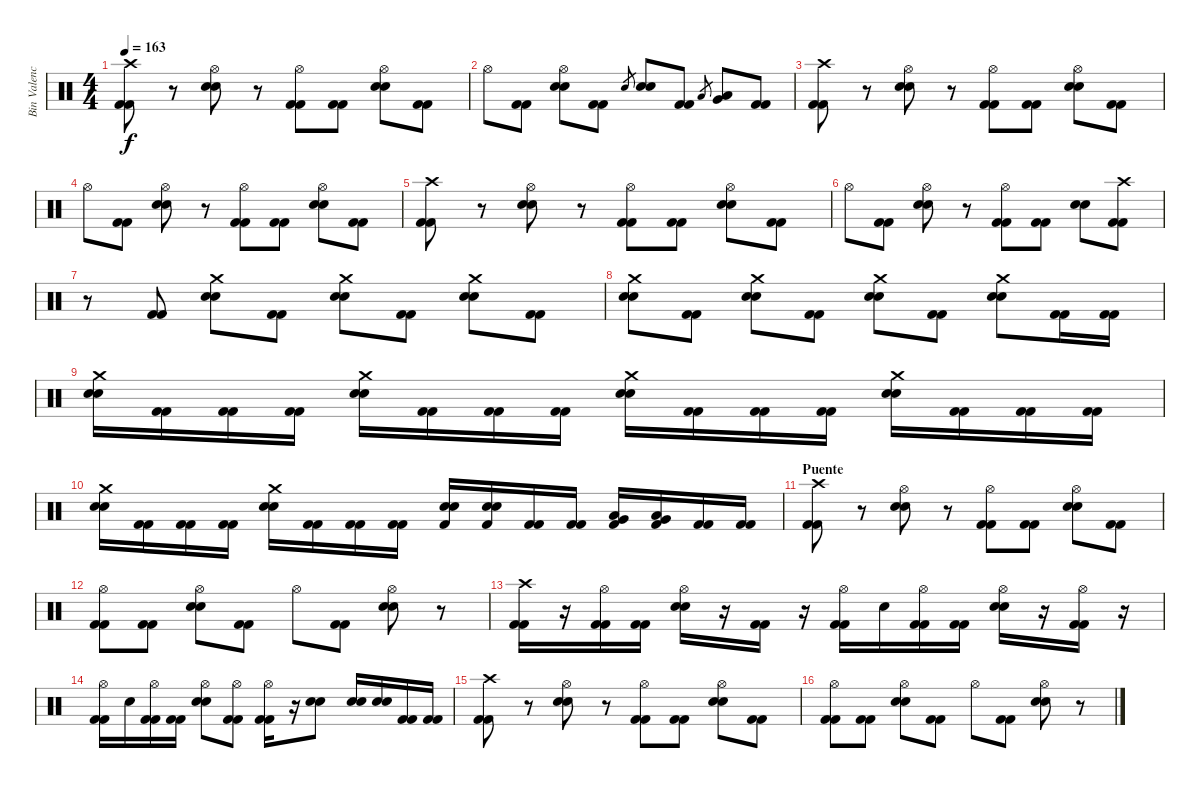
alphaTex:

\track ("Bin Valencia" "Bin Valenc") {instrument percussion}
\staff {score}
\articulation defaults
\ts (4 4)
\tempo 163
\clef neutral
\ks c
("Crash high (hit)" "Kick (hit) 2" "Kick (hit) 2").8{dy f} r.8 ("Hi-Hat (open)" "Snare (hit) 2" "Snare (hit) 2").8 r.8 ("Hi-Hat (open)" "Kick (hit) 2" "Kick (hit) 2").8 ("Kick (hit) 2" "Kick (hit) 2").8 ("Hi-Hat (open)" "Snare (hit) 2" "Snare (hit) 2").8 ("Kick (hit) 2" "Kick (hit) 2").8 |
"Hi-Hat (open)".8 ("Kick (hit) 2" "Kick (hit) 2").8 ("Hi-Hat (open)" "Snare (hit) 2" "Snare (hit) 2").8 ("Kick (hit) 2" "Kick (hit) 2").8 "Snare (hit) 2".8{gr} ("Snare (hit) 2" "Snare (hit) 2").8 ("Kick (hit) 2" "Kick (hit) 2").8 "Low Tom (hit)".8{gr} ("Very Low Tom (hit)" "Low Tom (hit)").8 ("Kick (hit) 2" "Kick (hit) 2").8 |
("Crash high (hit)" "Kick (hit) 2" "Kick (hit) 2").8 r.8 ("Hi-Hat (open)" "Snare (hit) 2" "Snare (hit) 2").8 r.8 ("Hi-Hat (open)" "Kick (hit) 2" "Kick (hit) 2").8 ("Kick (hit) 2" "Kick (hit) 2").8 ("Hi-Hat (open)" "Snare (hit) 2" "Snare (hit) 2").8 ("Kick (hit) 2" "Kick (hit) 2").8 |
"Hi-Hat (open)".8 ("Kick (hit) 2" "Kick (hit) 2").8 ("Hi-Hat (open)" "Snare (hit) 2" "Snare (hit) 2").8 r.8 ("Hi-Hat (open)" "Kick (hit) 2" "Kick (hit) 2").8 ("Kick (hit) 2" "Kick (hit) 2").8 ("Hi-Hat (open)" "Snare (hit) 2" "Snare (hit) 2").8 ("Kick (hit) 2" "Kick (hit) 2").8 |
("Crash high (hit)" "Kick (hit) 2" "Kick (hit) 2").8 r.8 ("Hi-Hat (open)" "Snare (hit) 2" "Snare (hit) 2").8 r.8 ("Hi-Hat (open)" "Kick (hit) 2" "Kick (hit) 2").8 ("Kick (hit) 2" "Kick (hit) 2").8 ("Hi-Hat (open)" "Snare (hit) 2" "Snare (hit) 2").8 ("Kick (hit) 2" "Kick (hit) 2").8 |
"Hi-Hat (open)".8 ("Kick (hit) 2" "Kick (hit) 2").8 ("Hi-Hat (open)" "Snare (hit) 2" "Snare (hit) 2").8 r.8 ("Hi-Hat (open)" "Kick (hit) 2" "Kick (hit) 2").8 ("Kick (hit) 2" "Kick (hit) 2").8 ("Snare (hit) 2" "Snare (hit) 2").8 ("Crash high (hit)" "Kick (hit) 2" "Kick (hit) 2").8 |
r.8 ("Kick (hit) 2" "Kick (hit) 2").8 ("Crash medium (hit)" "Snare (hit) 2" "Snare (hit) 2").8 ("Kick (hit) 2" "Kick (hit) 2").8 ("Crash medium (hit)" "Snare (hit) 2" "Snare (hit) 2").8 ("Kick (hit) 2" "Kick (hit) 2").8 ("Crash medium (hit)" "Snare (hit) 2" "Snare (hit) 2").8 ("Kick (hit) 2" "Kick (hit) 2").8 |
("Crash medium (hit)" "Snare (hit) 2" "Snare (hit) 2").8 ("Kick (hit) 2" "Kick (hit) 2").8 ("Crash medium (hit)" "Snare (hit) 2" "Snare (hit) 2").8 ("Kick (hit) 2" "Kick (hit) 2").8 ("Crash medium (hit)" "Snare (hit) 2" "Snare (hit) 2").8 ("Kick (hit) 2" "Kick (hit) 2").8 ("Crash medium (hit)" "Snare (hit) 2" "Snare (hit) 2").8 ("Kick (hit) 2" "Kick (hit) 2").16 ("Kick (hit) 2" "Kick (hit) 2").16 |
("Crash medium (hit)" "Snare (hit) 2" "Snare (hit) 2").16 ("Kick (hit) 2" "Kick (hit) 2").16 ("Kick (hit) 2" "Kick (hit) 2").16 ("Kick (hit) 2" "Kick (hit) 2").16 ("Crash medium (hit)" "Snare (hit) 2" "Snare (hit) 2").16 ("Kick (hit) 2" "Kick (hit) 2").16 ("Kick (hit) 2" "Kick (hit) 2").16 ("Kick (hit) 2" "Kick (hit) 2").16 ("Crash medium (hit)" "Snare (hit) 2" "Snare (hit) 2").16 ("Kick (hit) 2" "Kick (hit) 2").16 ("Kick (hit) 2" "Kick (hit) 2").16 ("Kick (hit) 2" "Kick (hit) 2").16 ("Crash medium (hit)" "Snare (hit) 2" "Snare (hit) 2").16 ("Kick (hit) 2" "Kick (hit) 2").16 ("Kick (hit) 2" "Kick (hit) 2").16 ("Kick (hit) 2" "Kick (hit) 2").16 |
("Crash medium (hit)" "Snare (hit) 2" "Snare (hit) 2").16 ("Kick (hit) 2" "Kick (hit) 2").16 ("Kick (hit) 2" "Kick (hit) 2").16 ("Kick (hit) 2" "Kick (hit) 2").16 ("Crash medium (hit)" "Snare (hit) 2" "Snare (hit) 2").16 ("Kick (hit) 2" "Kick (hit) 2").16 ("Kick (hit) 2" "Kick (hit) 2").16 ("Kick (hit) 2" "Kick (hit) 2").16 ("Snare (hit) 2" "Snare (hit) 2" "Kick (hit) 2").16 ("Snare (hit) 2" "Snare (hit) 2" "Kick (hit) 2").16 ("Kick (hit) 2" "Kick (hit) 2").16 ("Kick (hit) 2" "Kick (hit) 2").16 ("Very Low Tom (hit)" "Low Tom (hit)" "Kick (hit) 2").16 ("Very Low Tom (hit)" "Low Tom (hit)" "Kick (hit) 2").16 ("Kick (hit) 2" "Kick (hit) 2").16 ("Kick (hit) 2" "Kick (hit) 2").16 |
\section ("" "Puente")
("Crash high (hit)" "Kick (hit) 2" "Kick (hit) 2").8 r.8 ("Hi-Hat (open)" "Snare (hit) 2" "Snare (hit) 2").8 r.8 ("Hi-Hat (open)" "Kick (hit) 2" "Kick (hit) 2").8 ("Kick (hit) 2" "Kick (hit) 2").8 ("Hi-Hat (open)" "Snare (hit) 2" "Snare (hit) 2").8 ("Kick (hit) 2" "Kick (hit) 2").8 |
("Hi-Hat (open)" "Kick (hit) 2" "Kick (hit) 2").8 ("Kick (hit) 2" "Kick (hit) 2").8 ("Hi-Hat (open)" "Snare (hit) 2" "Snare (hit) 2").8 ("Kick (hit) 2" "Kick (hit) 2").8 "Hi-Hat (open)".8 ("Kick (hit) 2" "Kick (hit) 2").8 ("Hi-Hat (open)" "Snare (hit) 2" "Snare (hit) 2").8 r.8 |
("Crash high (hit)" "Kick (hit) 2" "Kick (hit) 2").16 r.16 ("Hi-Hat (open)" "Kick (hit) 2" "Kick (hit) 2").16 ("Kick (hit) 2" "Kick (hit) 2").16 ("Hi-Hat (open)" "Snare (hit) 2" "Snare (hit) 2").16 r.16 ("Kick (hit) 2" "Kick (hit) 2").16 r.16 ("Hi-Hat (open)" "Kick (hit) 2" "Kick (hit) 2").16 "Snare (hit) 2".16 ("Hi-Hat (open)" "Kick (hit) 2" "Kick (hit) 2").16 ("Kick (hit) 2" "Kick (hit) 2").16 ("Hi-Hat (open)" "Snare (hit) 2" "Snare (hit) 2").16 r.16 ("Hi-Hat (open)" "Kick (hit) 2" "Kick (hit) 2").16 r.16 |
("Hi-Hat (open)" "Kick (hit) 2" "Kick (hit) 2").16 "Snare (hit) 2".16 ("Hi-Hat (open)" "Kick (hit) 2" "Kick (hit) 2").16 ("Kick (hit) 2" "Kick (hit) 2").16 ("Hi-Hat (open)" "Snare (hit) 2" "Snare (hit) 2").8 ("Hi-Hat (open)" "Kick (hit) 2" "Kick (hit) 2").8 ("Hi-Hat (open)" "Kick (hit) 2" "Kick (hit) 2").16 r.16 ("Snare (hit) 2" "Snare (hit) 2").8 ("Snare (hit) 2" "Snare (hit) 2").16 ("Snare (hit) 2" "Snare (hit) 2").16 ("Kick (hit) 2" "Kick (hit) 2").16 ("Kick (hit) 2" "Kick (hit) 2").16 |
("Crash high (hit)" "Kick (hit) 2" "Kick (hit) 2").8 r.8 ("Hi-Hat (open)" "Snare (hit) 2" "Snare (hit) 2").8 r.8 ("Hi-Hat (open)" "Kick (hit) 2" "Kick (hit) 2").8 ("Kick (hit) 2" "Kick (hit) 2").8 ("Hi-Hat (open)" "Snare (hit) 2" "Snare (hit) 2").8 ("Kick (hit) 2" "Kick (hit) 2").8 |
("Hi-Hat (open)" "Kick (hit) 2" "Kick (hit) 2").8 ("Kick (hit) 2" "Kick (hit) 2").8 ("Hi-Hat (open)" "Snare (hit) 2" "Snare (hit) 2").8 ("Kick (hit) 2" "Kick (hit) 2").8 "Hi-Hat (open)".8 ("Kick (hit) 2" "Kick (hit) 2").8 ("Hi-Hat (open)" "Snare (hit) 2" "Snare (hit) 2").8 r.8
